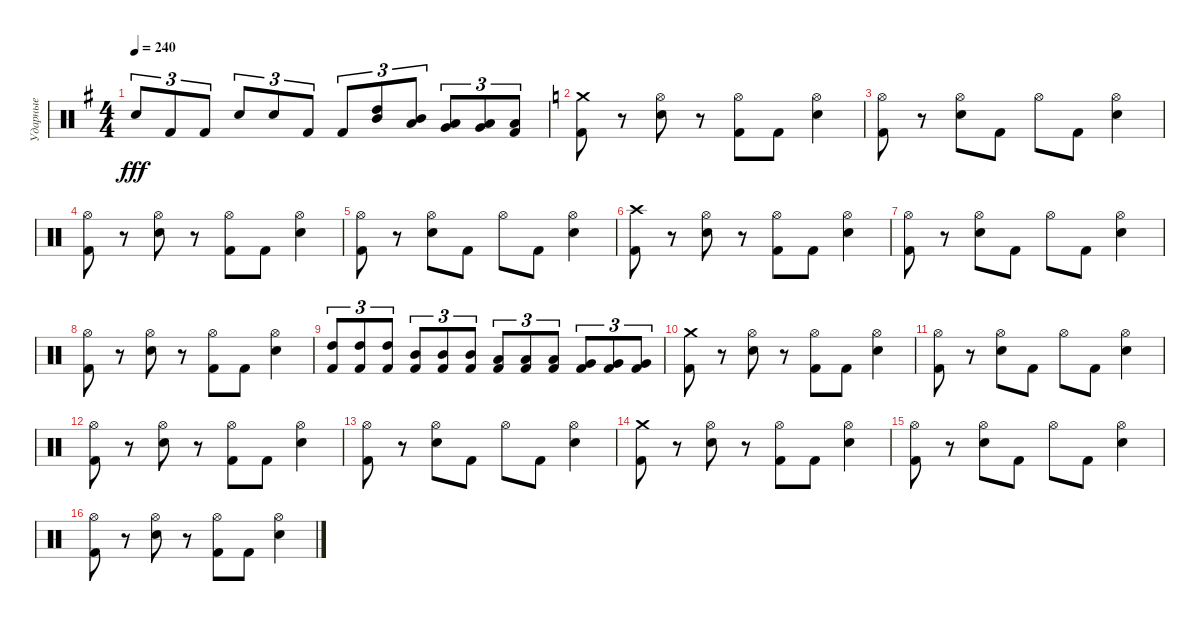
\track ("Ударные" "Ударные") {instrument percussion}
\staff {score}
\articulation defaults
\ts (4 4)
\tempo 240
\clef neutral
\ks eminor "Electric Snare (hit)".8{tu (3 2) dy fff} "Kick (hit) 2".8{tu (3 2)} "Kick (hit) 2".8{tu (3 2)} "Electric Snare (hit)".8{tu (3 2)} "Electric Snare (hit)".8{tu (3 2)} "Kick (hit) 2".8{tu (3 2)} "Kick (hit) 2".8{tu (3 2)}
("High Tom (hit)" "Mid Tom (hit)").8{tu (3 2)} ("Mid Tom (hit)" "Low Tom (hit)").8{tu (3 2)} ("Low Tom (hit)" "Very Low Tom (hit)").8{tu (3 2)} ("Very Low Tom (hit)" "Low Floor Tom (hit)").8{tu (3 2)} ("Low Floor Tom (hit)" "Kick (hit) 2").8{tu (3 2)} |
\ks c
("Crash medium (hit)" "Kick (hit) 2").8 r.8 ("Hi-Hat (open)" "Electric Snare (hit)").8 r.8 ("Hi-Hat (open)" "Kick (hit) 2").8 "Kick (hit) 2".8 ("Hi-Hat (open)" "Electric Snare (hit)").4 |
("Hi-Hat (open)" "Kick (hit) 2").8 r.8 ("Hi-Hat (open)" "Electric Snare (hit)").8 "Kick (hit) 2".8 "Hi-Hat (open)".8 "Kick (hit) 2".8 ("Hi-Hat (open)" "Electric Snare (hit)").4 |
("Hi-Hat (open)" "Kick (hit) 2").8 r.8 ("Hi-Hat (open)" "Electric Snare (hit)").8 r.8 ("Hi-Hat (open)" "Kick (hit) 2").8 "Kick (hit) 2".8 ("Hi-Hat (open)" "Electric Snare (hit)").4 |
("Hi-Hat (open)" "Kick (hit) 2").8 r.8 ("Hi-Hat (open)" "Electric Snare (hit)").8 "Kick (hit) 2".8 "Hi-Hat (open)".8 "Kick (hit) 2".8 ("Hi-Hat (open)" "Electric Snare (hit)").4 |
("Crash high (hit)" "Kick (hit) 2").8 r.8 ("Hi-Hat (open)" "Electric Snare (hit)").8 r.8 ("Hi-Hat (open)" "Kick (hit) 2").8 "Kick (hit) 2".8 ("Hi-Hat (open)" "Electric Snare (hit)").4 |
("Hi-Hat (open)" "Kick (hit) 2").8 r.8 ("Hi-Hat (open)" "Electric Snare (hit)").8 "Kick (hit) 2".8 "Hi-Hat (open)".8 "Kick (hit) 2".8 ("Hi-Hat (open)" "Electric Snare (hit)").4 |
("Hi-Hat (open)" "Kick (hit) 2").8 r.8 ("Hi-Hat (open)" "Electric Snare (hit)").8 r.8 ("Hi-Hat (open)" "Kick (hit) 2").8 "Kick (hit) 2".8 ("Hi-Hat (open)" "Electric Snare (hit)").4 |
("High Tom (hit)" "Kick (hit) 2").8{tu (3 2)} ("High Tom (hit)" "Kick (hit) 2").8{tu (3 2)} ("High Tom (hit)" "Kick (hit) 2").8{tu (3 2)} ("Mid Tom (hit)" "Kick (hit) 2").8{tu (3 2)} ("Mid Tom (hit)" "Kick (hit) 2").8{tu (3 2)} ("Mid Tom (hit)" "Kick (hit) 2").8{tu (3 2)} ("Low Tom (hit)" "Kick (hit) 2").8{tu (3 2)} ("Low Tom (hit)" "Kick (hit) 2").8{tu (3 2)} ("Low Tom (hit)" "Kick (hit) 2").8{tu (3 2)} ("Very Low Tom (hit)" "Kick (hit) 2").8{tu (3 2)} ("Very Low Tom (hit)" "Kick (hit) 2").8{tu (3 2)} ("Very Low Tom (hit)" "Kick (hit) 2").8{tu (3 2)} |
("Crash medium (hit)" "Kick (hit) 2").8 r.8 ("Hi-Hat (open)" "Electric Snare (hit)").8 r.8 ("Hi-Hat (open)" "Kick (hit) 2").8 "Kick (hit) 2".8 ("Hi-Hat (open)" "Electric Snare (hit)").4 |
("Hi-Hat (open)" "Kick (hit) 2").8 r.8 ("Hi-Hat (open)" "Electric Snare (hit)").8 "Kick (hit) 2".8 "Hi-Hat (open)".8 "Kick (hit) 2".8 ("Hi-Hat (open)" "Electric Snare (hit)").4 |
("Hi-Hat (open)" "Kick (hit) 2").8 r.8 ("Hi-Hat (open)" "Electric Snare (hit)").8 r.8 ("Hi-Hat (open)" "Kick (hit) 2").8 "Kick (hit) 2".8 ("Hi-Hat (open)" "Electric Snare (hit)").4 |
("Hi-Hat (open)" "Kick (hit) 2").8 r.8 ("Hi-Hat (open)" "Electric Snare (hit)").8 "Kick (hit) 2".8 "Hi-Hat (open)".8 "Kick (hit) 2".8 ("Hi-Hat (open)" "Electric Snare (hit)").4 |
("Crash medium (hit)" "Kick (hit) 2").8 r.8 ("Hi-Hat (open)" "Electric Snare (hit)").8 r.8 ("Hi-Hat (open)" "Kick (hit) 2").8 "Kick (hit) 2".8 ("Hi-Hat (open)" "Electric Snare (hit)").4 |
("Hi-Hat (open)" "Kick (hit) 2").8 r.8 ("Hi-Hat (open)" "Electric Snare (hit)").8 "Kick (hit) 2".8 "Hi-Hat (open)".8 "Kick (hit) 2".8 ("Hi-Hat (open)" "Electric Snare (hit)").4 |
("Hi-Hat (open)" "Kick (hit) 2").8 r.8 ("Hi-Hat (open)" "Electric Snare (hit)").8 r.8 ("Hi-Hat (open)" "Kick (hit) 2").8 "Kick (hit) 2".8 ("Hi-Hat (open)" "Electric Snare (hit)").4
